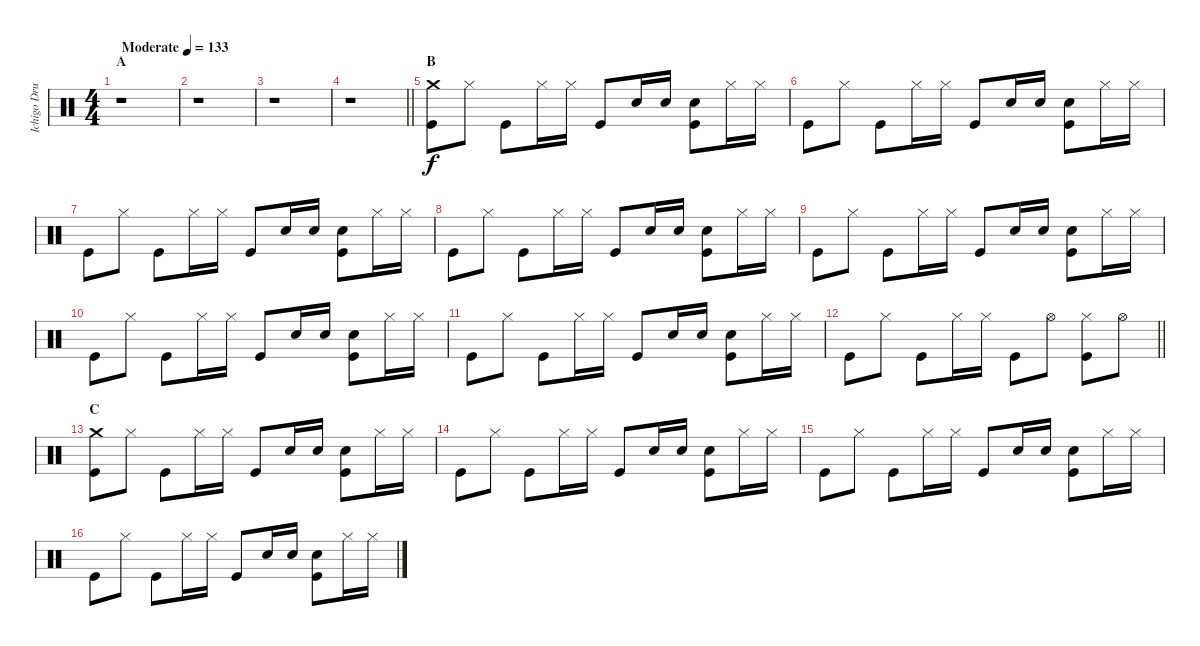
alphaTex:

\track ("Ichigo Drums" "Ichigo Dru") {instrument percussion}
\staff {score}
\articulation defaults
\ts (4 4)
\section ("" "A")
\tempo (133 "Moderate")
\clef neutral
\ks c
r.1{dy f} |
r.1 |
r.1 |
\barLineRight lightlight
r.1 |
\section ("" "B")
("Crash medium (hit)" "Kick (hit)").8 "Hi-Hat (closed)".8 "Kick (hit)".8 "Hi-Hat (closed)".16 "Hi-Hat (closed)".16 "Kick (hit)".8 "Snare (hit) 2".16 "Snare (hit) 2".16 ("Snare (hit) 2" "Kick (hit)").8 "Hi-Hat (closed)".16 "Hi-Hat (closed)".16 |
"Kick (hit)".8 "Hi-Hat (closed)".8 "Kick (hit)".8 "Hi-Hat (closed)".16 "Hi-Hat (closed)".16 "Kick (hit)".8 "Snare (hit) 2".16 "Snare (hit) 2".16 ("Snare (hit) 2" "Kick (hit)").8 "Hi-Hat (closed)".16 "Hi-Hat (closed)".16 |
"Kick (hit)".8 "Hi-Hat (closed)".8 "Kick (hit)".8 "Hi-Hat (closed)".16 "Hi-Hat (closed)".16 "Kick (hit)".8 "Snare (hit) 2".16 "Snare (hit) 2".16 ("Snare (hit) 2" "Kick (hit)").8 "Hi-Hat (closed)".16 "Hi-Hat (closed)".16 |
"Kick (hit)".8 "Hi-Hat (closed)".8 "Kick (hit)".8 "Hi-Hat (closed)".16 "Hi-Hat (closed)".16 "Kick (hit)".8 "Snare (hit) 2".16 "Snare (hit) 2".16 ("Snare (hit) 2" "Kick (hit)").8 "Hi-Hat (closed)".16 "Hi-Hat (closed)".16 |
"Kick (hit)".8 "Hi-Hat (closed)".8 "Kick (hit)".8 "Hi-Hat (closed)".16 "Hi-Hat (closed)".16 "Kick (hit)".8 "Snare (hit) 2".16 "Snare (hit) 2".16 ("Snare (hit) 2" "Kick (hit)").8 "Hi-Hat (closed)".16 "Hi-Hat (closed)".16 |
"Kick (hit)".8 "Hi-Hat (closed)".8 "Kick (hit)".8 "Hi-Hat (closed)".16 "Hi-Hat (closed)".16 "Kick (hit)".8 "Snare (hit) 2".16 "Snare (hit) 2".16 ("Snare (hit) 2" "Kick (hit)").8 "Hi-Hat (closed)".16 "Hi-Hat (closed)".16 |
"Kick (hit)".8 "Hi-Hat (closed)".8 "Kick (hit)".8 "Hi-Hat (closed)".16 "Hi-Hat (closed)".16 "Kick (hit)".8 "Snare (hit) 2".16 "Snare (hit) 2".16 ("Snare (hit) 2" "Kick (hit)").8 "Hi-Hat (closed)".16 "Hi-Hat (closed)".16 |
\barLineRight lightlight "Kick (hit)".8 "Hi-Hat (closed)".8 "Kick (hit)".8 "Hi-Hat (closed)".16 "Hi-Hat (closed)".16 "Kick (hit)".8 "Hi-Hat (open)".8
("Hi-Hat (closed)" "Kick (hit)").8 "Hi-Hat (open)".8 |
\section ("" "C")
("Crash medium (hit)" "Kick (hit)").8 "Hi-Hat (closed)".8 "Kick (hit)".8 "Hi-Hat (closed)".16 "Hi-Hat (closed)".16 "Kick (hit)".8 "Snare (hit) 2".16 "Snare (hit) 2".16 ("Snare (hit) 2" "Kick (hit)").8 "Hi-Hat (closed)".16 "Hi-Hat (closed)".16 |
"Kick (hit)".8 "Hi-Hat (closed)".8 "Kick (hit)".8 "Hi-Hat (closed)".16 "Hi-Hat (closed)".16 "Kick (hit)".8 "Snare (hit) 2".16 "Snare (hit) 2".16 ("Snare (hit) 2" "Kick (hit)").8 "Hi-Hat (closed)".16 "Hi-Hat (closed)".16 |
"Kick (hit)".8 "Hi-Hat (closed)".8 "Kick (hit)".8 "Hi-Hat (closed)".16 "Hi-Hat (closed)".16 "Kick (hit)".8 "Snare (hit) 2".16 "Snare (hit) 2".16 ("Snare (hit) 2" "Kick (hit)").8 "Hi-Hat (closed)".16 "Hi-Hat (closed)".16 |
"Kick (hit)".8 "Hi-Hat (closed)".8 "Kick (hit)".8 "Hi-Hat (closed)".16 "Hi-Hat (closed)".16 "Kick (hit)".8 "Snare (hit) 2".16 "Snare (hit) 2".16 ("Snare (hit) 2" "Kick (hit)").8 "Hi-Hat (closed)".16 "Hi-Hat (closed)".16
